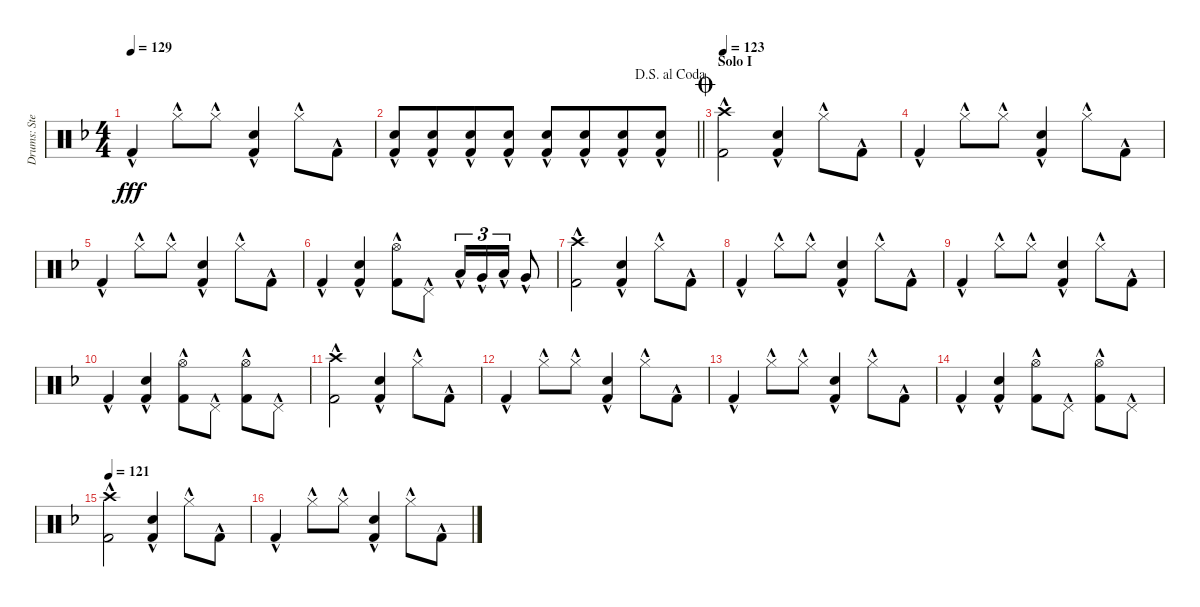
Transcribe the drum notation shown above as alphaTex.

\track ("Drums: Steve" "Drums: Ste") {instrument percussion}
\staff {score}
\articulation defaults
\ts (4 4)
\tempo 129
\clef neutral
\ks f "Kick (hit) 2"{hac}.4{dy fff} "Hi-Hat (closed)"{hac}.8 "Hi-Hat (closed)"{hac}.8
("Electric Snare (hit)"{hac} "Kick (hit) 2"{hac}).4 "Hi-Hat (closed)"{hac}.8 "Kick (hit) 2"{hac}.8 |
\jump dalsegnoalcoda
\barLineRight lightlight
("Electric Snare (hit)"{hac} "Kick (hit) 2"{hac}).8 ("Electric Snare (hit)"{hac} "Kick (hit) 2"{hac}).8{beam merge} ("Electric Snare (hit)"{hac} "Kick (hit) 2"{hac}).8 ("Electric Snare (hit)"{hac} "Kick (hit) 2"{hac}).8{beam split} ("Electric Snare (hit)"{hac} "Kick (hit) 2"{hac}).8 ("Electric Snare (hit)"{hac} "Kick (hit) 2"{hac}).8{beam merge} ("Electric Snare (hit)"{hac} "Kick (hit) 2"{hac}).8 ("Electric Snare (hit)"{hac} "Kick (hit) 2"{hac}).8 |
\section ("" "Solo I")
\jump coda
\tempo 123
("Crash high (hit)"{hac} "Kick (hit) 2"{hac}).2 ("Electric Snare (hit)"{hac} "Kick (hit) 2"{hac}).4 "Hi-Hat (closed)"{hac}.8 "Kick (hit) 2"{hac}.8 |
"Kick (hit) 2"{hac}.4 "Hi-Hat (closed)"{hac}.8 "Hi-Hat (closed)"{hac}.8 ("Electric Snare (hit)"{hac} "Kick (hit) 2"{hac}).4 "Hi-Hat (closed)"{hac}.8 "Kick (hit) 2"{hac}.8 |
"Kick (hit) 2"{hac}.4 "Hi-Hat (closed)"{hac}.8 "Hi-Hat (closed)"{hac}.8 ("Electric Snare (hit)"{hac} "Kick (hit) 2"{hac}).4 "Hi-Hat (closed)"{hac}.8 "Kick (hit) 2"{hac}.8 |
"Kick (hit) 2"{hac}.4 ("Electric Snare (hit)"{hac} "Kick (hit) 2"{hac}).4 ("Hi-Hat (open)"{hac} "Kick (hit) 2"{hac}).8 "Pedal Hi-Hat (hit)"{hac}.8 "Low Tom (hit)"{hac}.16{tu (3 2)} "Very Low Tom (hit)"{hac}.16{tu (3 2)} "Low Tom (hit)"{hac}.16{tu (3 2)} "Very Low Tom (hit)"{hac}.8 |
("Crash high (hit)"{hac} "Kick (hit) 2"{hac}).2 ("Electric Snare (hit)"{hac} "Kick (hit) 2"{hac}).4 "Hi-Hat (closed)"{hac}.8 "Kick (hit) 2"{hac}.8 |
"Kick (hit) 2"{hac}.4 "Hi-Hat (closed)"{hac}.8 "Hi-Hat (closed)"{hac}.8 ("Electric Snare (hit)"{hac} "Kick (hit) 2"{hac}).4 "Hi-Hat (closed)"{hac}.8 "Kick (hit) 2"{hac}.8 |
"Kick (hit) 2"{hac}.4 "Hi-Hat (closed)"{hac}.8 "Hi-Hat (closed)"{hac}.8 ("Electric Snare (hit)"{hac} "Kick (hit) 2"{hac}).4 "Hi-Hat (closed)"{hac}.8 "Kick (hit) 2"{hac}.8 |
"Kick (hit) 2"{hac}.4 ("Electric Snare (hit)"{hac} "Kick (hit) 2"{hac}).4 ("Hi-Hat (open)"{hac} "Kick (hit) 2"{hac}).8 "Pedal Hi-Hat (hit)"{hac}.8 ("Hi-Hat (open)"{hac} "Kick (hit) 2"{hac}).8 "Pedal Hi-Hat (hit)"{hac}.8 |
("Crash high (hit)"{hac} "Kick (hit) 2"{hac}).2 ("Electric Snare (hit)"{hac} "Kick (hit) 2"{hac}).4 "Hi-Hat (closed)"{hac}.8 "Kick (hit) 2"{hac}.8 |
"Kick (hit) 2"{hac}.4 "Hi-Hat (closed)"{hac}.8 "Hi-Hat (closed)"{hac}.8 ("Electric Snare (hit)"{hac} "Kick (hit) 2"{hac}).4 "Hi-Hat (closed)"{hac}.8 "Kick (hit) 2"{hac}.8 |
"Kick (hit) 2"{hac}.4 "Hi-Hat (closed)"{hac}.8 "Hi-Hat (closed)"{hac}.8 ("Electric Snare (hit)"{hac} "Kick (hit) 2"{hac}).4 "Hi-Hat (closed)"{hac}.8 "Kick (hit) 2"{hac}.8 |
"Kick (hit) 2"{hac}.4 ("Electric Snare (hit)"{hac} "Kick (hit) 2"{hac}).4 ("Hi-Hat (open)"{hac} "Kick (hit) 2"{hac}).8 "Pedal Hi-Hat (hit)"{hac}.8 ("Hi-Hat (open)"{hac} "Kick (hit) 2"{hac}).8 "Pedal Hi-Hat (hit)"{hac}.8 |
\tempo 121
("Crash high (hit)"{hac} "Kick (hit) 2"{hac}).2 ("Electric Snare (hit)"{hac} "Kick (hit) 2"{hac}).4 "Hi-Hat (closed)"{hac}.8 "Kick (hit) 2"{hac}.8 |
"Kick (hit) 2"{hac}.4 "Hi-Hat (closed)"{hac}.8 "Hi-Hat (closed)"{hac}.8 ("Electric Snare (hit)"{hac} "Kick (hit) 2"{hac}).4 "Hi-Hat (closed)"{hac}.8 "Kick (hit) 2"{hac}.8
